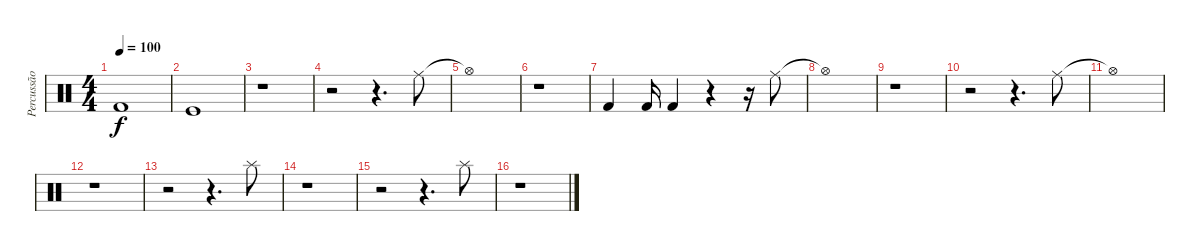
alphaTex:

\track ("Percussão" "Percussão") {instrument percussion}
\staff {score}
\articulation defaults
\ts (4 4)
\tempo 100
\clef neutral
\ks c "Kick (hit) 2".1{dy f}
|
"Kick (hit)".1 |
r.1 |
r.2 r.4{d} "Ride (middle)".8 |
"Hi-Hat (open)"{t}.1 |
\ks aminor
r.1 |
\ks c "Kick (hit) 2".4 "Kick (hit) 2".16 "Kick (hit) 2".4
r.4 r.16 "Ride (middle)".8 |
"Hi-Hat (open)"{t}.1 |
r.1 |
r.2 r.4{d} "Ride (middle)".8 |
"Hi-Hat (open)"{t}.1 |
\ks aminor
r.1 |
\ks c
r.2 r.4{d} "Splash (hit)".8 |
\ks aminor
r.1 |
\ks c
r.2 r.4{d} "Splash (hit)".8 |
r.1
